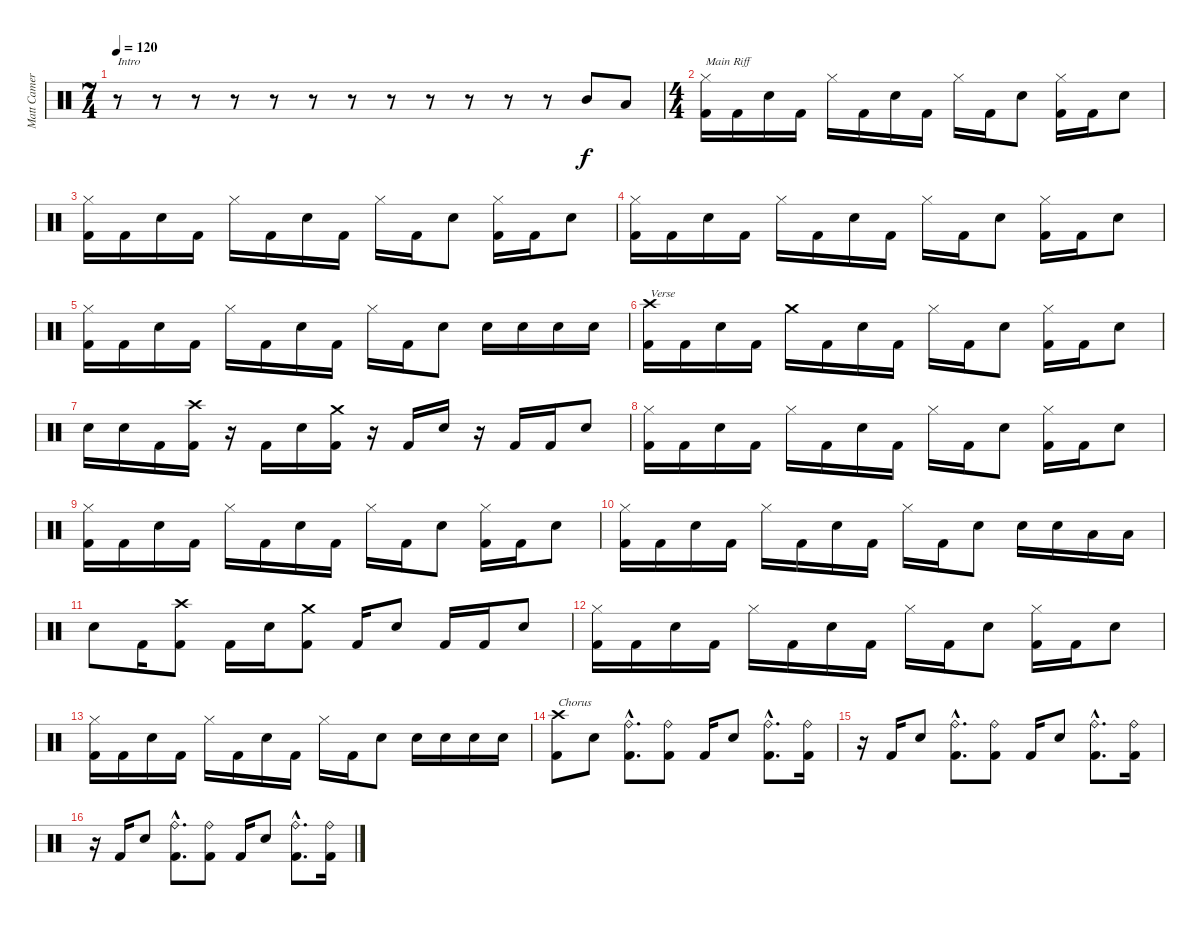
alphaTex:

\track ("Matt Cameron" "Matt Camer") {instrument percussion}
\staff {score}
\articulation defaults
\ts (7 4)
\tempo 120
\clef neutral
\ks c
r.8{txt "Intro" dy f} r.8 r.8 r.8 r.8 r.8 r.8 r.8 r.8 r.8 r.8 r.8 "Mid Tom (hit)".8 "Low Tom (hit)".8 |
\ts (4 4)
("Hi-Hat (closed)" "Kick (hit) 2").16{txt "Main Riff"} "Kick (hit) 2".16 "Electric Snare (hit)".16 "Kick (hit) 2".16 "Hi-Hat (closed)".16 "Kick (hit) 2".16 "Electric Snare (hit)".16 "Kick (hit) 2".16 "Hi-Hat (closed)".16 "Kick (hit) 2".16 "Electric Snare (hit)".8 ("Hi-Hat (closed)" "Kick (hit) 2").16 "Kick (hit) 2".16 "Electric Snare (hit)".8 |
("Hi-Hat (closed)" "Kick (hit) 2").16 "Kick (hit) 2".16 "Electric Snare (hit)".16 "Kick (hit) 2".16 "Hi-Hat (closed)".16 "Kick (hit) 2".16 "Electric Snare (hit)".16 "Kick (hit) 2".16 "Hi-Hat (closed)".16 "Kick (hit) 2".16 "Electric Snare (hit)".8 ("Hi-Hat (closed)" "Kick (hit) 2").16 "Kick (hit) 2".16 "Electric Snare (hit)".8 |
("Hi-Hat (closed)" "Kick (hit) 2").16 "Kick (hit) 2".16 "Electric Snare (hit)".16 "Kick (hit) 2".16 "Hi-Hat (closed)".16 "Kick (hit) 2".16 "Electric Snare (hit)".16 "Kick (hit) 2".16 "Hi-Hat (closed)".16 "Kick (hit) 2".16 "Electric Snare (hit)".8 ("Hi-Hat (closed)" "Kick (hit) 2").16 "Kick (hit) 2".16 "Electric Snare (hit)".8 |
("Hi-Hat (closed)" "Kick (hit) 2").16 "Kick (hit) 2".16 "Electric Snare (hit)".16 "Kick (hit) 2".16 "Hi-Hat (closed)".16 "Kick (hit) 2".16 "Electric Snare (hit)".16 "Kick (hit) 2".16 "Hi-Hat (closed)".16 "Kick (hit) 2".16 "Electric Snare (hit)".8 "Electric Snare (hit)".16 "Electric Snare (hit)".16 "Electric Snare (hit)".16 "Electric Snare (hit)".16 |
("Crash high (hit)" "Kick (hit) 2").16{txt "Verse"} "Kick (hit) 2".16 "Electric Snare (hit)".16 "Kick (hit) 2".16 "Crash medium (hit)".16 "Kick (hit) 2".16 "Electric Snare (hit)".16 "Kick (hit) 2".16 "Hi-Hat (closed)".16 "Kick (hit) 2".16 "Electric Snare (hit)".8 ("Hi-Hat (closed)" "Kick (hit) 2").16 "Kick (hit) 2".16 "Electric Snare (hit)".8 |
"Electric Snare (hit)".16 "Electric Snare (hit)".16 "Kick (hit) 2".16 ("Crash high (hit)" "Kick (hit) 2").16 r.16 "Kick (hit) 2".16 "Electric Snare (hit)".16 ("Crash medium (hit)" "Kick (hit) 2").16 r.16 "Kick (hit) 2".16 "Electric Snare (hit)".16 r.16 "Kick (hit) 2".16 "Kick (hit) 2".16 "Electric Snare (hit)".8 |
("Hi-Hat (closed)" "Kick (hit) 2").16 "Kick (hit) 2".16 "Electric Snare (hit)".16 "Kick (hit) 2".16 "Hi-Hat (closed)".16 "Kick (hit) 2".16 "Electric Snare (hit)".16 "Kick (hit) 2".16 "Hi-Hat (closed)".16 "Kick (hit) 2".16 "Electric Snare (hit)".8 ("Hi-Hat (closed)" "Kick (hit) 2").16 "Kick (hit) 2".16 "Electric Snare (hit)".8 |
("Hi-Hat (closed)" "Kick (hit) 2").16 "Kick (hit) 2".16 "Electric Snare (hit)".16 "Kick (hit) 2".16 "Hi-Hat (closed)".16 "Kick (hit) 2".16 "Electric Snare (hit)".16 "Kick (hit) 2".16 "Hi-Hat (closed)".16 "Kick (hit) 2".16 "Electric Snare (hit)".8 ("Hi-Hat (closed)" "Kick (hit) 2").16 "Kick (hit) 2".16 "Electric Snare (hit)".8 |
("Hi-Hat (closed)" "Kick (hit) 2").16 "Kick (hit) 2".16 "Electric Snare (hit)".16 "Kick (hit) 2".16 "Hi-Hat (closed)".16 "Kick (hit) 2".16 "Electric Snare (hit)".16 "Kick (hit) 2".16 "Hi-Hat (closed)".16 "Kick (hit) 2".16 "Electric Snare (hit)".8 "Electric Snare (hit)".16 "Electric Snare (hit)".16 "Low Tom (hit)".16 "Low Tom (hit)".16 |
"Electric Snare (hit)".8 "Kick (hit) 2".16 ("Crash high (hit)" "Kick (hit) 2").8 "Kick (hit) 2".16 "Electric Snare (hit)".16 ("Crash medium (hit)" "Kick (hit) 2").8 "Kick (hit) 2".16 "Electric Snare (hit)".8 "Kick (hit) 2".16 "Kick (hit) 2".16 "Electric Snare (hit)".8 |
("Hi-Hat (closed)" "Kick (hit) 2").16 "Kick (hit) 2".16 "Electric Snare (hit)".16 "Kick (hit) 2".16 "Hi-Hat (closed)".16 "Kick (hit) 2".16 "Electric Snare (hit)".16 "Kick (hit) 2".16 "Hi-Hat (closed)".16 "Kick (hit) 2".16 "Electric Snare (hit)".8 ("Hi-Hat (closed)" "Kick (hit) 2").16 "Kick (hit) 2".16 "Electric Snare (hit)".8 |
("Hi-Hat (closed)" "Kick (hit) 2").16 "Kick (hit) 2".16 "Electric Snare (hit)".16 "Kick (hit) 2".16 "Hi-Hat (closed)".16 "Kick (hit) 2".16 "Electric Snare (hit)".16 "Kick (hit) 2".16 "Hi-Hat (closed)".16 "Kick (hit) 2".16 "Electric Snare (hit)".8 "Electric Snare (hit)".16 "Electric Snare (hit)".16 "Electric Snare (hit)".16 "Electric Snare (hit)".16 |
("Crash high (hit)" "Kick (hit) 2").8{txt "Chorus"} "Electric Snare (hit)".8 ("Ride (bell)"{hac} "Kick (hit) 2"{hac}).8{d} ("Ride (bell)" "Kick (hit) 2").8 "Kick (hit) 2".16 "Electric Snare (hit)".8 ("Ride (bell)"{hac} "Kick (hit) 2"{hac}).8{d} ("Ride (bell)" "Kick (hit) 2").16 |
r.16 "Kick (hit) 2".16 "Electric Snare (hit)".8 ("Ride (bell)"{hac} "Kick (hit) 2"{hac}).8{d} ("Ride (bell)" "Kick (hit) 2").8 "Kick (hit) 2".16 "Electric Snare (hit)".8 ("Ride (bell)"{hac} "Kick (hit) 2"{hac}).8{d} ("Ride (bell)" "Kick (hit) 2").16 |
r.16 "Kick (hit) 2".16 "Electric Snare (hit)".8 ("Ride (bell)"{hac} "Kick (hit) 2"{hac}).8{d} ("Ride (bell)" "Kick (hit) 2").8 "Kick (hit) 2".16 "Electric Snare (hit)".8 ("Ride (bell)"{hac} "Kick (hit) 2"{hac}).8{d} ("Ride (bell)" "Kick (hit) 2").16
